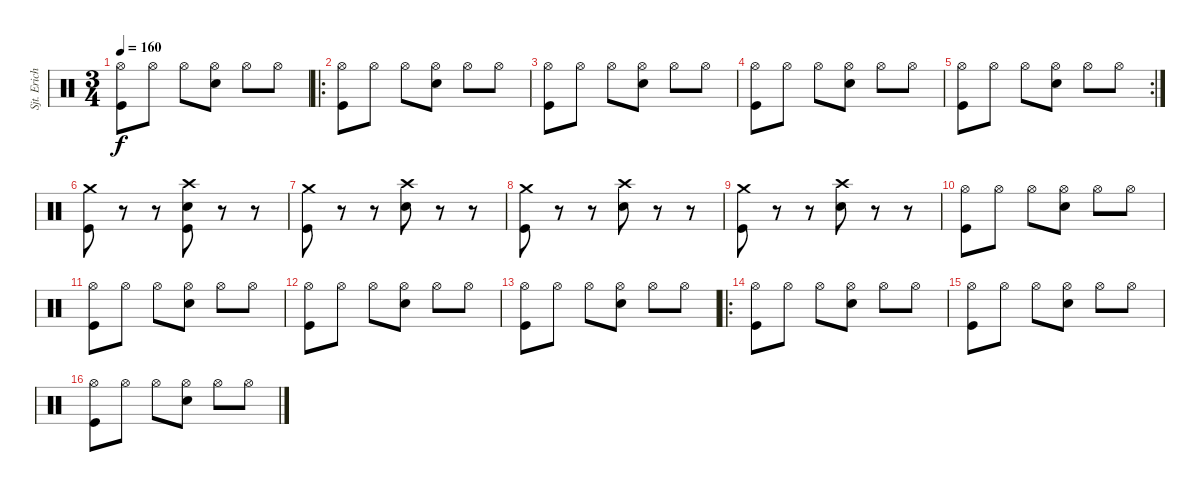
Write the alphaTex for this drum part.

\track ("Sjt. Erichsen" "Sjt. Erich") {instrument percussion}
\staff {score}
\articulation defaults
\ts (3 4)
\tempo 160
\clef neutral
\ks c
("Hi-Hat (open)" "Kick (hit)").8{dy f} "Hi-Hat (open)".8 "Hi-Hat (open)".8 ("Hi-Hat (open)" "Electric Snare (hit)").8 "Hi-Hat (open)".8 "Hi-Hat (open)".8 |
\ro
("Hi-Hat (open)" "Kick (hit)").8 "Hi-Hat (open)".8 "Hi-Hat (open)".8 ("Hi-Hat (open)" "Electric Snare (hit)").8 "Hi-Hat (open)".8 "Hi-Hat (open)".8 |
("Hi-Hat (open)" "Kick (hit)").8 "Hi-Hat (open)".8 "Hi-Hat (open)".8 ("Hi-Hat (open)" "Electric Snare (hit)").8 "Hi-Hat (open)".8 "Hi-Hat (open)".8 |
("Hi-Hat (open)" "Kick (hit)").8 "Hi-Hat (open)".8 "Hi-Hat (open)".8 ("Hi-Hat (open)" "Electric Snare (hit)").8 "Hi-Hat (open)".8 "Hi-Hat (open)".8 |
\rc 2
("Hi-Hat (open)" "Kick (hit)").8 "Hi-Hat (open)".8 "Hi-Hat (open)".8 ("Hi-Hat (open)" "Electric Snare (hit)").8 "Hi-Hat (open)".8 "Hi-Hat (open)".8 |
("Crash medium (hit)" "Kick (hit)").8 r.8 r.8 ("Crash high (hit)" "Electric Snare (hit)" "Kick (hit)").8 r.8 r.8 |
("Crash medium (hit)" "Kick (hit)").8 r.8 r.8 ("Crash high (hit)" "Electric Snare (hit)").8 r.8 r.8 |
("Crash medium (hit)" "Kick (hit)").8 r.8 r.8 ("Crash high (hit)" "Electric Snare (hit)").8 r.8 r.8 |
("Crash medium (hit)" "Kick (hit)").8 r.8 r.8 ("Crash high (hit)" "Electric Snare (hit)").8 r.8 r.8 |
("Hi-Hat (open)" "Kick (hit)").8 "Hi-Hat (open)".8 "Hi-Hat (open)".8 ("Hi-Hat (open)" "Electric Snare (hit)").8 "Hi-Hat (open)".8 "Hi-Hat (open)".8 |
("Hi-Hat (open)" "Kick (hit)").8 "Hi-Hat (open)".8 "Hi-Hat (open)".8 ("Hi-Hat (open)" "Electric Snare (hit)").8 "Hi-Hat (open)".8 "Hi-Hat (open)".8 |
("Hi-Hat (open)" "Kick (hit)").8 "Hi-Hat (open)".8 "Hi-Hat (open)".8 ("Hi-Hat (open)" "Electric Snare (hit)").8 "Hi-Hat (open)".8 "Hi-Hat (open)".8 |
("Hi-Hat (open)" "Kick (hit)").8 "Hi-Hat (open)".8 "Hi-Hat (open)".8 ("Hi-Hat (open)" "Electric Snare (hit)").8 "Hi-Hat (open)".8 "Hi-Hat (open)".8 |
\ro
("Hi-Hat (open)" "Kick (hit)").8 "Hi-Hat (open)".8 "Hi-Hat (open)".8 ("Hi-Hat (open)" "Electric Snare (hit)").8 "Hi-Hat (open)".8 "Hi-Hat (open)".8 |
("Hi-Hat (open)" "Kick (hit)").8 "Hi-Hat (open)".8 "Hi-Hat (open)".8 ("Hi-Hat (open)" "Electric Snare (hit)").8 "Hi-Hat (open)".8 "Hi-Hat (open)".8 |
("Hi-Hat (open)" "Kick (hit)").8 "Hi-Hat (open)".8 "Hi-Hat (open)".8 ("Hi-Hat (open)" "Electric Snare (hit)").8 "Hi-Hat (open)".8 "Hi-Hat (open)".8
